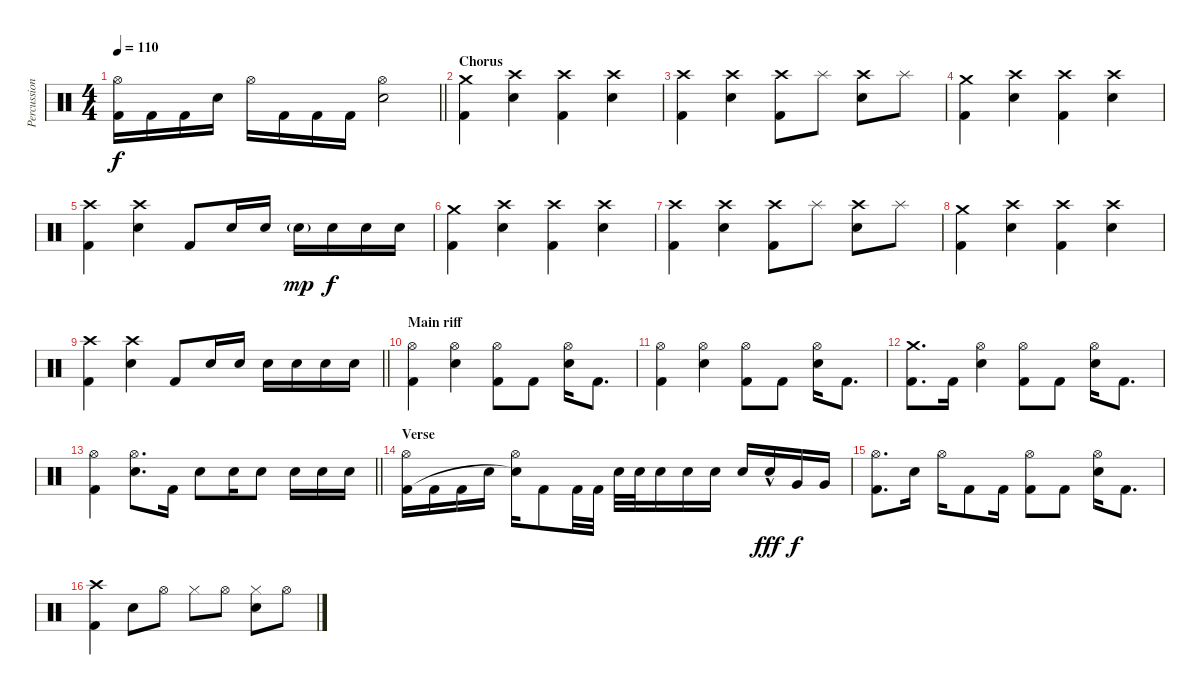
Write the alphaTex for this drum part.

\track ("Percussions" "Percussion") {instrument percussion}
\staff {score}
\articulation defaults
\ts (4 4)
\tempo 110
\clef neutral
\barLineRight lightlight
\ks c
("Hi-Hat (open)" "Kick (hit) 2").16{dy f} "Kick (hit) 2".16 "Kick (hit) 2".16 "Electric Snare (hit)".16 "Hi-Hat (open)".16 "Kick (hit) 2".16 "Kick (hit) 2".16 "Kick (hit) 2".16 ("Hi-Hat (open)" "Electric Snare (hit)").2 |
\section ("" "Chorus")
("Crash medium (hit)" "Kick (hit) 2").4 ("Crash high (hit)" "Electric Snare (hit)").4 ("Crash high (hit)" "Kick (hit) 2").4 ("Crash high (hit)" "Electric Snare (hit)").4 |
("Crash high (hit)" "Kick (hit) 2").4 ("Crash high (hit)" "Electric Snare (hit)").4 ("Crash high (hit)" "Kick (hit) 2").8 "Splash (hit)".8 ("Crash high (hit)" "Electric Snare (hit)").8 "Splash (hit)".8 |
("Crash medium (hit)" "Kick (hit) 2").4 ("Crash high (hit)" "Electric Snare (hit)").4 ("Crash high (hit)" "Kick (hit) 2").4 ("Crash high (hit)" "Electric Snare (hit)").4 |
("Crash high (hit)" "Kick (hit) 2").4 ("Crash high (hit)" "Electric Snare (hit)").4 "Kick (hit) 2".8 "Electric Snare (hit)".16 "Electric Snare (hit)".16 "Electric Snare (hit)"{g}.16{dy mp} "Electric Snare (hit)".16{dy f} "Electric Snare (hit)".16 "Electric Snare (hit)".16 |
("Crash medium (hit)" "Kick (hit) 2").4 ("Crash high (hit)" "Electric Snare (hit)").4 ("Crash high (hit)" "Kick (hit) 2").4 ("Crash high (hit)" "Electric Snare (hit)").4 |
("Crash high (hit)" "Kick (hit) 2").4 ("Crash high (hit)" "Electric Snare (hit)").4 ("Crash high (hit)" "Kick (hit) 2").8 "Splash (hit)".8 ("Crash high (hit)" "Electric Snare (hit)").8 "Splash (hit)".8 |
("Crash medium (hit)" "Kick (hit) 2").4 ("Crash high (hit)" "Electric Snare (hit)").4 ("Crash high (hit)" "Kick (hit) 2").4 ("Crash high (hit)" "Electric Snare (hit)").4 |
\barLineRight lightlight
("Crash high (hit)" "Kick (hit) 2").4 ("Crash high (hit)" "Electric Snare (hit)").4 "Kick (hit) 2".8 "Electric Snare (hit)".16 "Electric Snare (hit)".16 "Electric Snare (hit)".16 "Electric Snare (hit)".16 "Electric Snare (hit)".16 "Electric Snare (hit)".16 |
\section ("" "Main riff")
("Hi-Hat (open)" "Kick (hit) 2").4 ("Hi-Hat (open)" "Electric Snare (hit)").4 ("Hi-Hat (open)" "Kick (hit) 2").8 "Kick (hit) 2".8 ("Hi-Hat (open)" "Electric Snare (hit)").16 "Kick (hit) 2".8{d} |
("Hi-Hat (open)" "Kick (hit) 2").4 ("Hi-Hat (open)" "Electric Snare (hit)").4 ("Hi-Hat (open)" "Kick (hit) 2").8 "Kick (hit) 2".8 ("Hi-Hat (open)" "Electric Snare (hit)").16 "Kick (hit) 2".8{d} |
("Crash medium (hit)" "Kick (hit) 2").8{d} "Kick (hit) 2".16 ("Hi-Hat (open)" "Electric Snare (hit)").4 ("Hi-Hat (open)" "Kick (hit) 2").8 "Kick (hit) 2".8 ("Hi-Hat (open)" "Electric Snare (hit)").16 "Kick (hit) 2".8{d} |
\barLineRight lightlight
("Hi-Hat (open)" "Kick (hit) 2").4 ("Hi-Hat (open)" "Electric Snare (hit)").8{d} "Kick (hit) 2".16 "Electric Snare (hit)".8 "Electric Snare (hit)".16 "Electric Snare (hit)".8 "Electric Snare (hit)".16 "Electric Snare (hit)".16 "Electric Snare (hit)".16 |
\section ("" "Verse")
("Hi-Hat (open)" "Kick (hit) 2").16 "Kick (hit) 2".16 "Kick (hit) 2".16 "Electric Snare (hit)".16 ("Hi-Hat (open)" "Snare (hit)"{t}).16 "Kick (hit) 2".8 "Kick (hit) 2".32 "Kick (hit) 2".32 "Electric Snare (hit)".32 "Electric Snare (hit)".32 "Electric Snare (hit)".16 "Electric Snare (hit)".16 "Electric Snare (hit)".16 "Electric Snare (hit)".16 "Electric Snare (hit)"{hac}.16{dy fff} "Very Low Tom (hit)".16{dy f} "Very Low Tom (hit)".16 |
("Hi-Hat (open)" "Kick (hit) 2").8{d} "Electric Snare (hit)".16 "Hi-Hat (open)".16 "Kick (hit) 2".8 "Kick (hit) 2".16 ("Hi-Hat (open)" "Kick (hit) 2").8 "Kick (hit) 2".8 ("Hi-Hat (open)" "Electric Snare (hit)").16 "Kick (hit) 2".8{d} |
("Crash high (hit)" "Kick (hit) 2").4 "Electric Snare (hit)".8 "Hi-Hat (open)".8 "Hi-Hat (closed)".8 "Hi-Hat (open)".8 ("Hi-Hat (closed)" "Electric Snare (hit)").8 "Hi-Hat (open)".8
